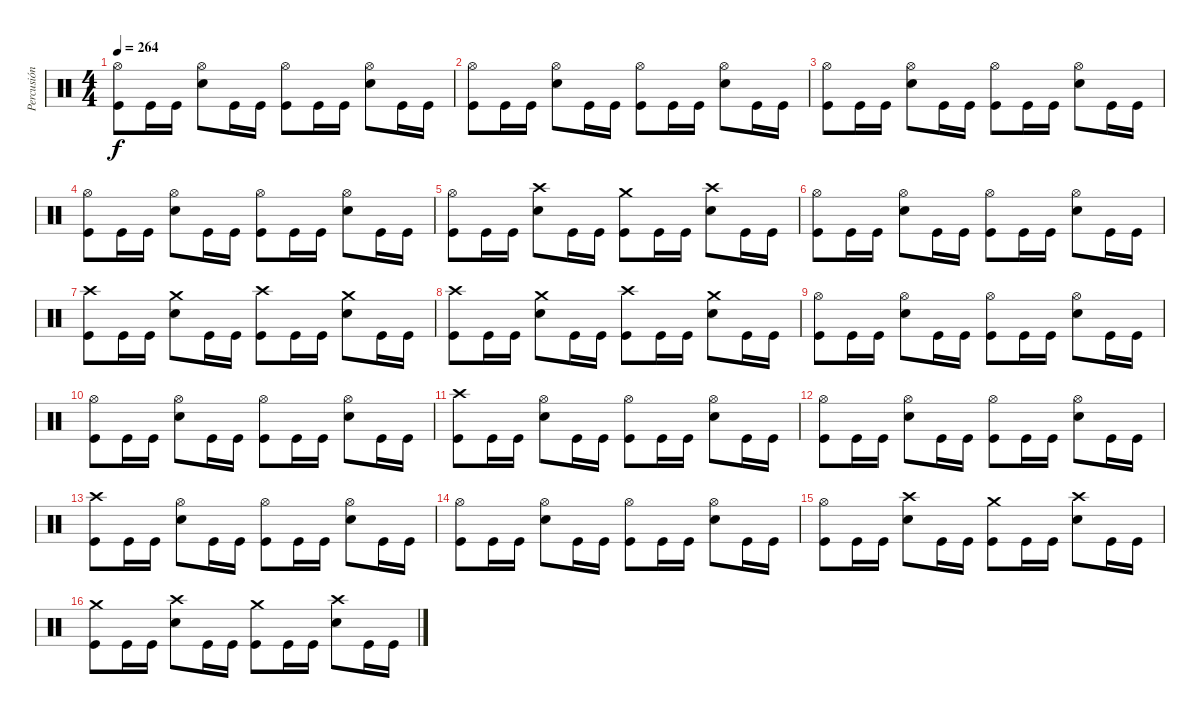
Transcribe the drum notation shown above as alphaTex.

\track ("Percusión" "Percusión") {instrument percussion}
\staff {score}
\articulation defaults
\ts (4 4)
\tempo 264
\clef neutral
\ks c
("Hi-Hat (open)" "Kick (hit)").8{dy f} "Kick (hit)".16 "Kick (hit)".16 ("Hi-Hat (open)" "Snare (hit) 2").8 "Kick (hit)".16 "Kick (hit)".16 ("Hi-Hat (open)" "Kick (hit)").8 "Kick (hit)".16 "Kick (hit)".16 ("Hi-Hat (open)" "Snare (hit) 2").8 "Kick (hit)".16 "Kick (hit)".16 |
("Hi-Hat (open)" "Kick (hit)").8 "Kick (hit)".16 "Kick (hit)".16 ("Hi-Hat (open)" "Snare (hit) 2").8 "Kick (hit)".16 "Kick (hit)".16 ("Hi-Hat (open)" "Kick (hit)").8 "Kick (hit)".16 "Kick (hit)".16 ("Hi-Hat (open)" "Snare (hit) 2").8 "Kick (hit)".16 "Kick (hit)".16 |
("Hi-Hat (open)" "Kick (hit)").8 "Kick (hit)".16 "Kick (hit)".16 ("Hi-Hat (open)" "Snare (hit) 2").8 "Kick (hit)".16 "Kick (hit)".16 ("Hi-Hat (open)" "Kick (hit)").8 "Kick (hit)".16 "Kick (hit)".16 ("Hi-Hat (open)" "Snare (hit) 2").8 "Kick (hit)".16 "Kick (hit)".16 |
("Hi-Hat (open)" "Kick (hit)").8 "Kick (hit)".16 "Kick (hit)".16 ("Hi-Hat (open)" "Snare (hit) 2").8 "Kick (hit)".16 "Kick (hit)".16 ("Hi-Hat (open)" "Kick (hit)").8 "Kick (hit)".16 "Kick (hit)".16 ("Hi-Hat (open)" "Snare (hit) 2").8 "Kick (hit)".16 "Kick (hit)".16 |
("Hi-Hat (open)" "Kick (hit)").8 "Kick (hit)".16 "Kick (hit)".16 ("Crash high (hit)" "Snare (hit) 2").8 "Kick (hit)".16 "Kick (hit)".16 ("Crash medium (hit)" "Kick (hit)").8 "Kick (hit)".16 "Kick (hit)".16 ("Crash high (hit)" "Snare (hit) 2").8 "Kick (hit)".16 "Kick (hit)".16 |
("Hi-Hat (open)" "Kick (hit)").8 "Kick (hit)".16 "Kick (hit)".16 ("Hi-Hat (open)" "Snare (hit) 2").8 "Kick (hit)".16 "Kick (hit)".16 ("Hi-Hat (open)" "Kick (hit)").8 "Kick (hit)".16 "Kick (hit)".16 ("Hi-Hat (open)" "Snare (hit) 2").8 "Kick (hit)".16 "Kick (hit)".16 |
("Crash high (hit)" "Kick (hit)").8 "Kick (hit)".16 "Kick (hit)".16 ("Crash medium (hit)" "Snare (hit) 2").8 "Kick (hit)".16 "Kick (hit)".16 ("Crash high (hit)" "Kick (hit)").8 "Kick (hit)".16 "Kick (hit)".16 ("Crash medium (hit)" "Snare (hit) 2").8 "Kick (hit)".16 "Kick (hit)".16 |
("Crash high (hit)" "Kick (hit)").8 "Kick (hit)".16 "Kick (hit)".16 ("Crash medium (hit)" "Snare (hit) 2").8 "Kick (hit)".16 "Kick (hit)".16 ("Crash high (hit)" "Kick (hit)").8 "Kick (hit)".16 "Kick (hit)".16 ("Crash medium (hit)" "Snare (hit) 2").8 "Kick (hit)".16 "Kick (hit)".16 |
("Hi-Hat (open)" "Kick (hit)").8 "Kick (hit)".16 "Kick (hit)".16 ("Hi-Hat (open)" "Snare (hit) 2").8 "Kick (hit)".16 "Kick (hit)".16 ("Hi-Hat (open)" "Kick (hit)").8 "Kick (hit)".16 "Kick (hit)".16 ("Hi-Hat (open)" "Snare (hit) 2").8 "Kick (hit)".16 "Kick (hit)".16 |
("Hi-Hat (open)" "Kick (hit)").8 "Kick (hit)".16 "Kick (hit)".16 ("Hi-Hat (open)" "Snare (hit) 2").8 "Kick (hit)".16 "Kick (hit)".16 ("Hi-Hat (open)" "Kick (hit)").8 "Kick (hit)".16 "Kick (hit)".16 ("Hi-Hat (open)" "Snare (hit) 2").8 "Kick (hit)".16 "Kick (hit)".16 |
("Crash high (hit)" "Kick (hit)").8 "Kick (hit)".16 "Kick (hit)".16 ("Hi-Hat (open)" "Snare (hit) 2").8 "Kick (hit)".16 "Kick (hit)".16 ("Hi-Hat (open)" "Kick (hit)").8 "Kick (hit)".16 "Kick (hit)".16 ("Hi-Hat (open)" "Snare (hit) 2").8 "Kick (hit)".16 "Kick (hit)".16 |
("Hi-Hat (open)" "Kick (hit)").8 "Kick (hit)".16 "Kick (hit)".16 ("Hi-Hat (open)" "Snare (hit) 2").8 "Kick (hit)".16 "Kick (hit)".16 ("Hi-Hat (open)" "Kick (hit)").8 "Kick (hit)".16 "Kick (hit)".16 ("Hi-Hat (open)" "Snare (hit) 2").8 "Kick (hit)".16 "Kick (hit)".16 |
("Crash high (hit)" "Kick (hit)").8 "Kick (hit)".16 "Kick (hit)".16 ("Hi-Hat (open)" "Snare (hit) 2").8 "Kick (hit)".16 "Kick (hit)".16 ("Hi-Hat (open)" "Kick (hit)").8 "Kick (hit)".16 "Kick (hit)".16 ("Hi-Hat (open)" "Snare (hit) 2").8 "Kick (hit)".16 "Kick (hit)".16 |
("Hi-Hat (open)" "Kick (hit)").8 "Kick (hit)".16 "Kick (hit)".16 ("Hi-Hat (open)" "Snare (hit) 2").8 "Kick (hit)".16 "Kick (hit)".16 ("Hi-Hat (open)" "Kick (hit)").8 "Kick (hit)".16 "Kick (hit)".16 ("Hi-Hat (open)" "Snare (hit) 2").8 "Kick (hit)".16 "Kick (hit)".16 |
("Hi-Hat (open)" "Kick (hit)").8 "Kick (hit)".16 "Kick (hit)".16 ("Crash high (hit)" "Snare (hit) 2").8 "Kick (hit)".16 "Kick (hit)".16 ("Crash medium (hit)" "Kick (hit)").8 "Kick (hit)".16 "Kick (hit)".16 ("Crash high (hit)" "Snare (hit) 2").8 "Kick (hit)".16 "Kick (hit)".16 |
("Crash medium (hit)" "Kick (hit)").8 "Kick (hit)".16 "Kick (hit)".16 ("Crash high (hit)" "Snare (hit) 2").8 "Kick (hit)".16 "Kick (hit)".16 ("Crash medium (hit)" "Kick (hit)").8 "Kick (hit)".16 "Kick (hit)".16 ("Crash high (hit)" "Snare (hit) 2").8 "Kick (hit)".16 "Kick (hit)".16
